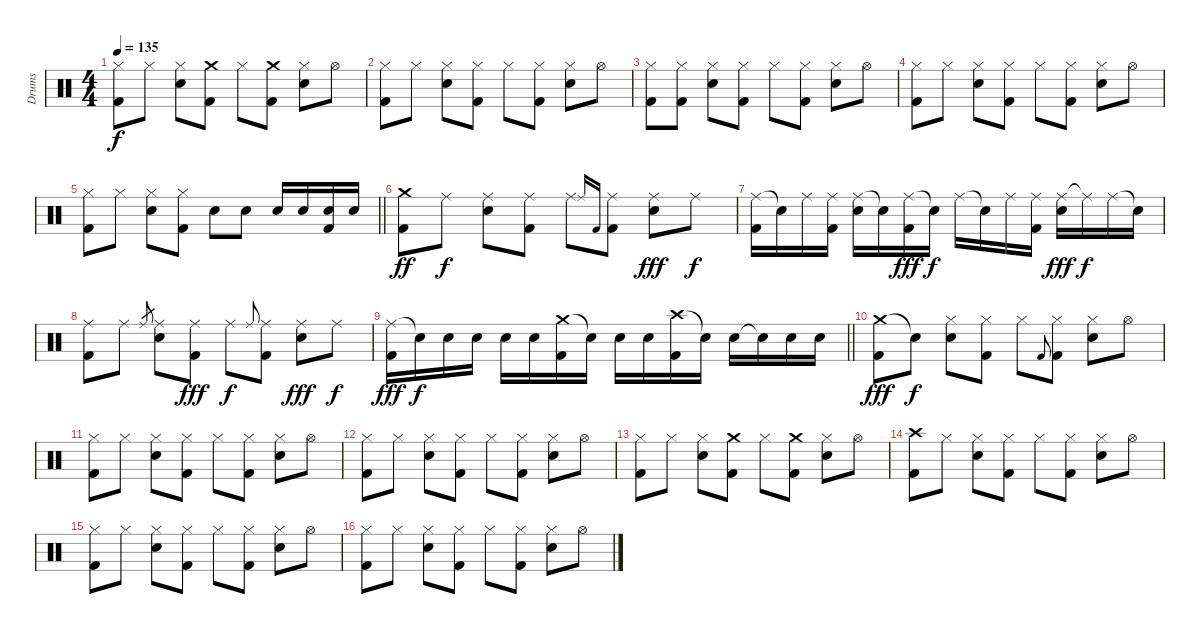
\track ("Drums" "Drums") {instrument percussion}
\staff {score}
\articulation defaults
\ts (4 4)
\tempo 135
\clef neutral
\ks c
("Hi-Hat (closed)" "Kick (hit) 2").8{dy f} "Hi-Hat (closed)".8 ("Hi-Hat (closed)" "Snare (hit) 2").8 ("Crash medium (hit)" "Kick (hit) 2").8 "Hi-Hat (closed)".8 ("Crash medium (hit)" "Kick (hit) 2").8 ("Hi-Hat (closed)" "Snare (hit) 2").8 "Hi-Hat (open)".8 |
("Hi-Hat (closed)" "Kick (hit) 2").8 "Hi-Hat (closed)".8 ("Hi-Hat (closed)" "Snare (hit) 2").8 ("Hi-Hat (closed)" "Kick (hit) 2").8 "Hi-Hat (closed)".8 ("Hi-Hat (closed)" "Kick (hit) 2").8 ("Hi-Hat (closed)" "Snare (hit) 2").8 "Hi-Hat (open)".8 |
("Hi-Hat (closed)" "Kick (hit) 2").8 ("Hi-Hat (closed)" "Kick (hit) 2").8 ("Hi-Hat (closed)" "Snare (hit) 2").8 ("Hi-Hat (closed)" "Kick (hit) 2").8 "Hi-Hat (closed)".8 ("Hi-Hat (closed)" "Kick (hit) 2").8 ("Hi-Hat (closed)" "Snare (hit) 2").8 "Hi-Hat (open)".8 |
("Hi-Hat (closed)" "Kick (hit) 2").8 "Hi-Hat (closed)".8 ("Hi-Hat (closed)" "Snare (hit) 2").8 ("Hi-Hat (closed)" "Kick (hit) 2").8 "Hi-Hat (closed)".8 ("Hi-Hat (closed)" "Kick (hit) 2").8 ("Hi-Hat (closed)" "Snare (hit) 2").8 "Hi-Hat (open)".8 |
\barLineRight lightlight
("Hi-Hat (closed)" "Kick (hit) 2").8 "Hi-Hat (closed)".8 ("Hi-Hat (closed)" "Snare (hit) 2").8 ("Hi-Hat (closed)" "Kick (hit) 2").8 "Snare (hit) 2".8 "Snare (hit) 2".8 "Snare (hit) 2".16 "Snare (hit) 2".16 ("Snare (hit) 2" "Kick (hit) 2").16 "Snare (hit) 2".16 |
("Crash medium (hit)" "Kick (hit) 2").8{dy ff} "Ride (middle)".8{dy f} ("Ride (middle)" "Snare (hit) 2").8 ("Ride (middle)" "Kick (hit) 2").8 "Ride (middle)".8 "Ride (middle)".16{gr onbeat} "Kick (hit) 2".16{gr onbeat} ("Ride (middle)" "Kick (hit) 2").8 ("Ride (middle)" "Snare (hit) 2").8{dy fff} "Ride (middle)".8{dy f} |
("Ride (middle)" "Kick (hit) 2").16 "Snare (hit)"{t}.16 "Ride (middle)".16 ("Ride (middle)" "Kick (hit) 2").16 ("Ride (middle)" "Snare (hit) 2").16 "Snare (hit)"{t}.16 ("Ride (middle)" "Kick (hit) 2").16{dy fff} "Snare (hit)"{t}.16{dy f} "Ride (middle)".16 "Snare (hit)"{t}.16 "Ride (middle)".16 ("Ride (middle)" "Kick (hit) 2").16 ("Ride (middle)" "Snare (hit) 2").16{dy fff} "Ride (middle)"{t}.16{dy f} "Ride (middle)".16 "Snare (hit)"{t}.16 |
("Ride (middle)" "Kick (hit) 2").8 "Ride (middle)".8 "Ride (middle)".8{gr} ("Ride (middle)" "Snare (hit) 2").8 ("Ride (middle)" "Kick (hit) 2").8{dy fff} "Ride (middle)".8{dy f} "Ride (middle)".8{gr onbeat} ("Ride (middle)" "Kick (hit) 2").8 ("Ride (middle)" "Snare (hit) 2").8{dy fff} "Ride (middle)".8{dy f} |
\barLineRight lightlight
("Ride (middle)" "Kick (hit) 2").16{dy fff} "Snare (hit)"{t}.16{dy f} "Snare (hit) 2".16 "Snare (hit) 2".16 "Snare (hit) 2".16 "Snare (hit) 2".16 ("Crash medium (hit)" "Kick (hit) 2").16 "Snare (hit)"{t}.16 "Snare (hit) 2".16 "Snare (hit) 2".16 ("Crash high (hit)" "Kick (hit) 2").16 "Snare (hit)"{t}.16 "Snare (hit) 2".16 "Snare (hit)"{t}.16 "Snare (hit) 2".16 "Snare (hit) 2".16 |
("Crash medium (hit)" "Kick (hit) 2").8{dy fff volume 16 balance 8} "Snare (hit)"{t}.8{dy f} ("Hi-Hat (closed)" "Snare (hit) 2").8 ("Hi-Hat (closed)" "Kick (hit) 2").8 "Hi-Hat (closed)".8 "Kick (hit) 2".8{gr onbeat} ("Hi-Hat (closed)" "Kick (hit) 2").8 ("Hi-Hat (closed)" "Snare (hit) 2").8 "Hi-Hat (open)".8 |
("Hi-Hat (closed)" "Kick (hit) 2").8 "Hi-Hat (closed)".8 ("Hi-Hat (closed)" "Snare (hit) 2").8 ("Hi-Hat (closed)" "Kick (hit) 2").8 "Hi-Hat (closed)".8 ("Hi-Hat (closed)" "Kick (hit) 2").8 ("Hi-Hat (closed)" "Snare (hit) 2").8 "Hi-Hat (open)".8 |
("Hi-Hat (closed)" "Kick (hit) 2").8 "Hi-Hat (closed)".8 ("Hi-Hat (closed)" "Snare (hit) 2").8 ("Hi-Hat (closed)" "Kick (hit) 2").8 "Hi-Hat (closed)".8 ("Hi-Hat (closed)" "Kick (hit) 2").8 ("Hi-Hat (closed)" "Snare (hit) 2").8 "Hi-Hat (open)".8 |
("Hi-Hat (closed)" "Kick (hit) 2").8 "Hi-Hat (closed)".8 ("Hi-Hat (closed)" "Snare (hit) 2").8 ("Crash medium (hit)" "Kick (hit) 2").8 "Hi-Hat (closed)".8 ("Crash medium (hit)" "Kick (hit) 2").8 ("Hi-Hat (closed)" "Snare (hit) 2").8 "Hi-Hat (open)".8 |
("Crash high (hit)" "Kick (hit) 2").8 "Hi-Hat (closed)".8 ("Hi-Hat (closed)" "Snare (hit) 2").8 ("Hi-Hat (closed)" "Kick (hit) 2").8 "Hi-Hat (closed)".8 ("Hi-Hat (closed)" "Kick (hit) 2").8 ("Hi-Hat (closed)" "Snare (hit) 2").8 "Hi-Hat (open)".8 |
("Hi-Hat (closed)" "Kick (hit) 2").8 "Hi-Hat (closed)".8 ("Hi-Hat (closed)" "Snare (hit) 2").8 ("Hi-Hat (closed)" "Kick (hit) 2").8 "Hi-Hat (closed)".8 ("Hi-Hat (closed)" "Kick (hit) 2").8 ("Hi-Hat (closed)" "Snare (hit) 2").8 "Hi-Hat (open)".8 |
("Hi-Hat (closed)" "Kick (hit) 2").8 "Hi-Hat (closed)".8 ("Hi-Hat (closed)" "Snare (hit) 2").8 ("Hi-Hat (closed)" "Kick (hit) 2").8 "Hi-Hat (closed)".8 ("Hi-Hat (closed)" "Kick (hit) 2").8 ("Hi-Hat (closed)" "Snare (hit) 2").8 "Hi-Hat (open)".8
